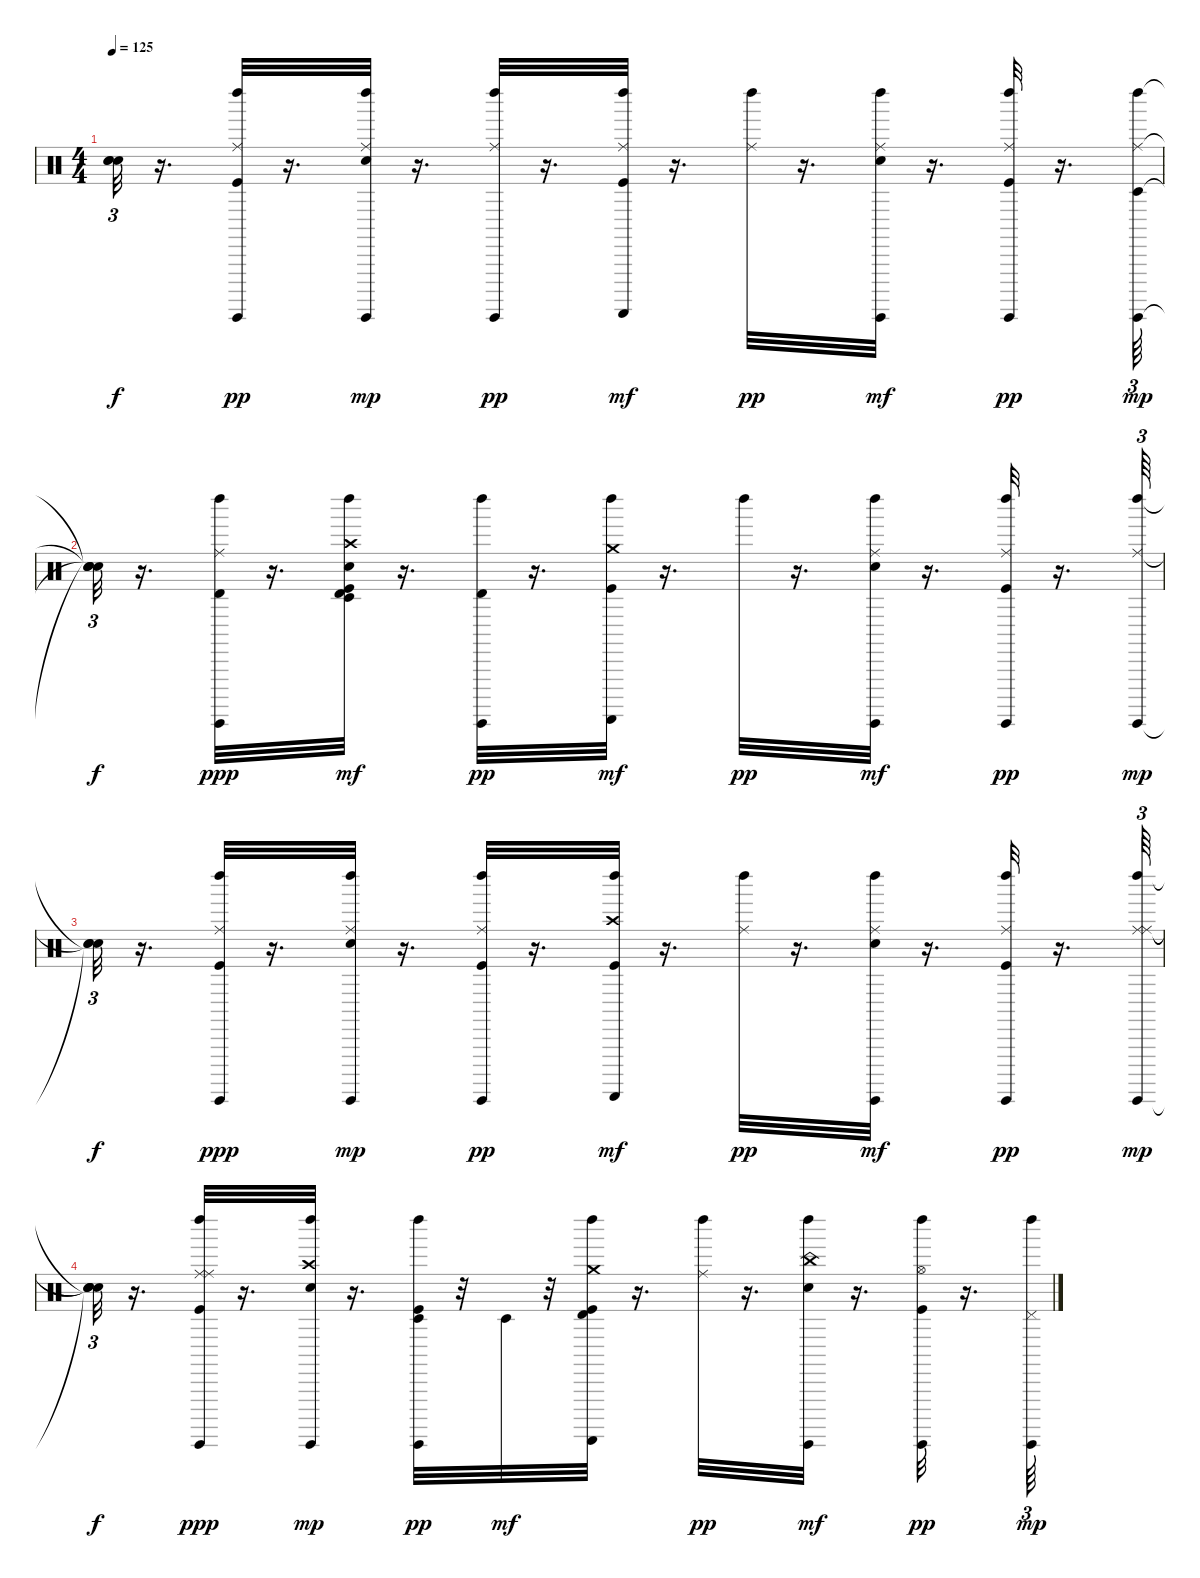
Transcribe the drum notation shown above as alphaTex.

\track "" {instrument percussion}
\staff {score}
\articulation defaults
\ts (4 4)
\tempo 125
\clef neutral
\ks c
("Snare (hit)"{t} "Snare (hit)"{t} "Snare (hit)"{t}).32{tu (3 2) dy f} r.16{d} ("Left Maraca (hit)" "Ride (middle)" "Kick (hit)" "Guiro (hit)").32{dy pp} r.16{d} ("Ride (middle)" "Left Maraca (hit)" "Electric Snare (hit)" "Guiro (hit)").32{dy mp} r.16{d} ("Ride (middle)" "Left Maraca (hit)" "Guiro (hit)").32{dy pp} r.16{d} ("Ride (middle)" "Left Maraca (hit)" "Kick (hit)" "Guiro (scrap-return)").32{dy mf} r.16{d} ("Ride (middle)" "Left Maraca (hit)").32{dy pp} r.16{d} ("Ride (middle)" "Electric Snare (hit)" "Left Maraca (hit)" "Guiro (hit)").32{dy mf} r.16{d} ("Ride (middle)" "Left Maraca (hit)" "Kick (hit)" "Guiro (hit)").32{dy pp} r.16{d} ("Left Maraca (hit)" "Ride (middle)" "Timbale low (hit)" "Guiro (hit)").64{tu (3 2) dy mp} |
("Snare (hit)"{t} "Snare (hit)"{t} "Snare (hit)"{t} "Snare (hit)"{t}).32{tu (3 2) dy f} r.16{d} ("Timbale high (hit)" "Left Maraca (hit)" "Ride (middle)" "Guiro (hit)").32{dy ppp} r.16{d} ("Timbale low (hit)" "Kick (hit)" "Crash high (hit)" "Electric Snare (hit)" "Timbale high (hit)" "Left Maraca (hit)").32{dy mf} r.16{d} ("Left Maraca (hit)" "Timbale high (hit)" "Guiro (hit)").32{dy pp} r.16{d} ("Kick (hit)" "Left Maraca (hit)" "Crash medium (hit)" "Guiro (scrap-return)").32{dy mf} r.16{d} "Left Maraca (hit)".32{dy pp} r.16{d} ("Electric Snare (hit)" "Left Maraca (hit)" "Ride (middle)" "Guiro (hit)").32{dy mf} r.16{d} ("Kick (hit)" "Ride (middle)" "Left Maraca (hit)" "Guiro (hit)").32{dy pp} r.16{d} ("Ride (middle)" "Left Maraca (hit)" "Guiro (hit)").64{tu (3 2) dy mp} |
("Snare (hit)"{t} "Snare (hit)"{t} "Snare (hit)"{t}).32{tu (3 2) dy f} r.16{d} ("Kick (hit)" "Ride (middle)" "Left Maraca (hit)" "Guiro (hit)").32{dy ppp} r.16{d} ("Left Maraca (hit)" "Ride (middle)" "Electric Snare (hit)" "Guiro (hit)").32{dy mp} r.16{d} ("Left Maraca (hit)" "Ride (middle)" "Kick (hit)" "Guiro (hit)").32{dy pp} r.16{d} ("Crash high (hit)" "Left Maraca (hit)" "Kick (hit)" "Guiro (scrap-return)").32{dy mf} r.16{d} ("Ride (middle)" "Left Maraca (hit)").32{dy pp} r.16{d} ("Electric Snare (hit)" "Left Maraca (hit)" "Ride (middle)" "Guiro (hit)").32{dy mf} r.16{d} ("Ride (middle)" "Left Maraca (hit)" "Kick (hit)" "Guiro (hit)").32{dy pp} r.16{d} ("Ride (middle)" "Ride (middle)" "Left Maraca (hit)" "Guiro (hit)").64{tu (3 2) dy mp} |
("Snare (hit)"{t} "Snare (hit)"{t} "Snare (hit)"{t} "Snare (hit)"{t}).32{tu (3 2) dy f} r.16{d} ("Ride (middle)" "Kick (hit)" "Ride (middle)" "Left Maraca (hit)" "Guiro (hit)").32{dy ppp} r.16{d} ("Crash high (hit)" "Electric Snare (hit)" "Left Maraca (hit)" "Guiro (hit)").32{dy mp} r.16{d} ("Timbale low (hit)" "Kick (hit)" "Left Maraca (hit)" "Guiro (hit)").32{dy pp} r.32 "Timbale low (hit)".32{dy mf} r.32 ("Timbale high (hit)" "Crash medium (hit)" "Left Maraca (hit)" "Kick (hit)" "Guiro (scrap-return)").32 r.16{d} ("Ride (middle)" "Left Maraca (hit)").32{dy pp} r.16{d} ("Electric Snare (hit)" "Left Maraca (hit)" "China (hit)" "Guiro (hit)").32{dy mf} r.16{d} ("Kick (hit)" "Left Maraca (hit)" "Hi-Hat (open)" "Guiro (hit)").32{dy pp} r.16{d} ("Pedal Hi-Hat (hit)" "Left Maraca (hit)" "Guiro (hit)").64{tu (3 2) dy mp}
